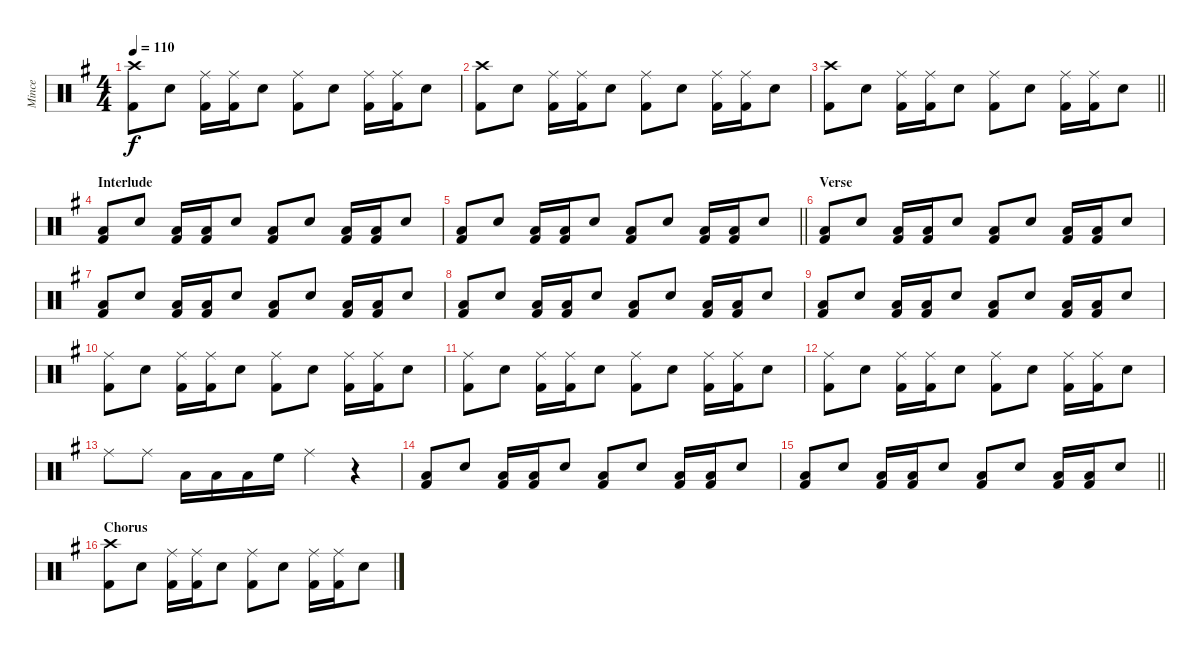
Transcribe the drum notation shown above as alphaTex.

\track ("Mince" "Mince") {instrument percussion}
\staff {score}
\articulation defaults
\ts (4 4)
\tempo 110
\clef neutral
\ks g
("Kick (hit) 2" "Crash high (hit)").8{dy f} "Snare (hit) 2".8 ("Kick (hit) 2" "Ride (middle)").16 ("Kick (hit) 2" "Ride (middle)").16 "Snare (hit) 2".8 ("Kick (hit) 2" "Ride (middle)").8 "Snare (hit) 2".8 ("Kick (hit) 2" "Ride (middle)").16 ("Kick (hit) 2" "Ride (middle)").16 "Snare (hit) 2".8 |
("Kick (hit) 2" "Crash high (hit)").8 "Snare (hit) 2".8 ("Kick (hit) 2" "Ride (middle)").16 ("Kick (hit) 2" "Ride (middle)").16 "Snare (hit) 2".8 ("Kick (hit) 2" "Ride (middle)").8 "Snare (hit) 2".8 ("Kick (hit) 2" "Ride (middle)").16 ("Kick (hit) 2" "Ride (middle)").16 "Snare (hit) 2".8 |
\barLineRight lightlight
("Kick (hit) 2" "Crash high (hit)").8 "Snare (hit) 2".8 ("Kick (hit) 2" "Ride (middle)").16 ("Kick (hit) 2" "Ride (middle)").16 "Snare (hit) 2".8 ("Kick (hit) 2" "Ride (middle)").8 "Snare (hit) 2".8 ("Kick (hit) 2" "Ride (middle)").16 ("Kick (hit) 2" "Ride (middle)").16 "Snare (hit) 2".8 |
\section ("" "Interlude")
("Kick (hit) 2" "Low Floor Tom (hit)").8 "Snare (hit) 2".8 ("Kick (hit) 2" "Low Floor Tom (hit)").16 ("Kick (hit) 2" "Low Floor Tom (hit)").16 "Snare (hit) 2".8 ("Kick (hit) 2" "Low Floor Tom (hit)").8 "Snare (hit) 2".8 ("Kick (hit) 2" "Low Floor Tom (hit)").16 ("Kick (hit) 2" "Low Floor Tom (hit)").16 "Snare (hit) 2".8 |
\barLineRight lightlight
("Kick (hit) 2" "Low Floor Tom (hit)").8 "Snare (hit) 2".8 ("Kick (hit) 2" "Low Floor Tom (hit)").16 ("Kick (hit) 2" "Low Floor Tom (hit)").16 "Snare (hit) 2".8 ("Kick (hit) 2" "Low Floor Tom (hit)").8 "Snare (hit) 2".8 ("Kick (hit) 2" "Low Floor Tom (hit)").16 ("Kick (hit) 2" "Low Floor Tom (hit)").16 "Snare (hit) 2".8 |
\section ("" "Verse")
("Kick (hit) 2" "Low Floor Tom (hit)").8 "Snare (hit) 2".8 ("Kick (hit) 2" "Low Floor Tom (hit)").16 ("Kick (hit) 2" "Low Floor Tom (hit)").16 "Snare (hit) 2".8 ("Kick (hit) 2" "Low Floor Tom (hit)").8 "Snare (hit) 2".8 ("Kick (hit) 2" "Low Floor Tom (hit)").16 ("Kick (hit) 2" "Low Floor Tom (hit)").16 "Snare (hit) 2".8 |
("Kick (hit) 2" "Low Floor Tom (hit)").8 "Snare (hit) 2".8 ("Kick (hit) 2" "Low Floor Tom (hit)").16 ("Kick (hit) 2" "Low Floor Tom (hit)").16 "Snare (hit) 2".8 ("Kick (hit) 2" "Low Floor Tom (hit)").8 "Snare (hit) 2".8 ("Kick (hit) 2" "Low Floor Tom (hit)").16 ("Kick (hit) 2" "Low Floor Tom (hit)").16 "Snare (hit) 2".8 |
("Kick (hit) 2" "Low Floor Tom (hit)").8 "Snare (hit) 2".8 ("Kick (hit) 2" "Low Floor Tom (hit)").16 ("Kick (hit) 2" "Low Floor Tom (hit)").16 "Snare (hit) 2".8 ("Kick (hit) 2" "Low Floor Tom (hit)").8 "Snare (hit) 2".8 ("Kick (hit) 2" "Low Floor Tom (hit)").16 ("Kick (hit) 2" "Low Floor Tom (hit)").16 "Snare (hit) 2".8 |
("Kick (hit) 2" "Low Floor Tom (hit)").8 "Snare (hit) 2".8 ("Kick (hit) 2" "Low Floor Tom (hit)").16 ("Kick (hit) 2" "Low Floor Tom (hit)").16 "Snare (hit) 2".8 ("Kick (hit) 2" "Low Floor Tom (hit)").8 "Snare (hit) 2".8 ("Kick (hit) 2" "Low Floor Tom (hit)").16 ("Kick (hit) 2" "Low Floor Tom (hit)").16 "Snare (hit) 2".8 |
("Kick (hit) 2" "Ride (middle)").8 "Snare (hit) 2".8 ("Kick (hit) 2" "Ride (middle)").16 ("Kick (hit) 2" "Ride (middle)").16 "Snare (hit) 2".8 ("Kick (hit) 2" "Ride (middle)").8 "Snare (hit) 2".8 ("Kick (hit) 2" "Ride (middle)").16 ("Kick (hit) 2" "Ride (middle)").16 "Snare (hit) 2".8 |
("Kick (hit) 2" "Ride (middle)").8 "Snare (hit) 2".8 ("Kick (hit) 2" "Ride (middle)").16 ("Kick (hit) 2" "Ride (middle)").16 "Snare (hit) 2".8 ("Kick (hit) 2" "Ride (middle)").8 "Snare (hit) 2".8 ("Kick (hit) 2" "Ride (middle)").16 ("Kick (hit) 2" "Ride (middle)").16 "Snare (hit) 2".8 |
("Kick (hit) 2" "Ride (middle)").8 "Snare (hit) 2".8 ("Kick (hit) 2" "Ride (middle)").16 ("Kick (hit) 2" "Ride (middle)").16 "Snare (hit) 2".8 ("Kick (hit) 2" "Ride (middle)").8 "Snare (hit) 2".8 ("Kick (hit) 2" "Ride (middle)").16 ("Kick (hit) 2" "Ride (middle)").16 "Snare (hit) 2".8 |
"Ride (middle)".8 "Ride (middle)".8 "Low Floor Tom (hit)".16 "Low Floor Tom (hit)".16 "Low Tom (hit)".16 "High Floor Tom (hit)".16 "Ride (middle)".4 r.4 |
("Kick (hit) 2" "Low Floor Tom (hit)").8 "Snare (hit) 2".8 ("Kick (hit) 2" "Low Floor Tom (hit)").16 ("Kick (hit) 2" "Low Floor Tom (hit)").16 "Snare (hit) 2".8 ("Kick (hit) 2" "Low Floor Tom (hit)").8 "Snare (hit) 2".8 ("Kick (hit) 2" "Low Floor Tom (hit)").16 ("Kick (hit) 2" "Low Floor Tom (hit)").16 "Snare (hit) 2".8 |
\barLineRight lightlight
("Kick (hit) 2" "Low Floor Tom (hit)").8 "Snare (hit) 2".8 ("Kick (hit) 2" "Low Floor Tom (hit)").16 ("Kick (hit) 2" "Low Floor Tom (hit)").16 "Snare (hit) 2".8 ("Kick (hit) 2" "Low Floor Tom (hit)").8 "Snare (hit) 2".8 ("Kick (hit) 2" "Low Floor Tom (hit)").16 ("Kick (hit) 2" "Low Floor Tom (hit)").16 "Snare (hit) 2".8 |
\section ("" "Chorus")
("Kick (hit) 2" "Crash high (hit)").8 "Snare (hit) 2".8 ("Kick (hit) 2" "Ride (middle)").16 ("Kick (hit) 2" "Ride (middle)").16 "Snare (hit) 2".8 ("Kick (hit) 2" "Ride (middle)").8 "Snare (hit) 2".8 ("Kick (hit) 2" "Ride (middle)").16 ("Kick (hit) 2" "Ride (middle)").16 "Snare (hit) 2".8
